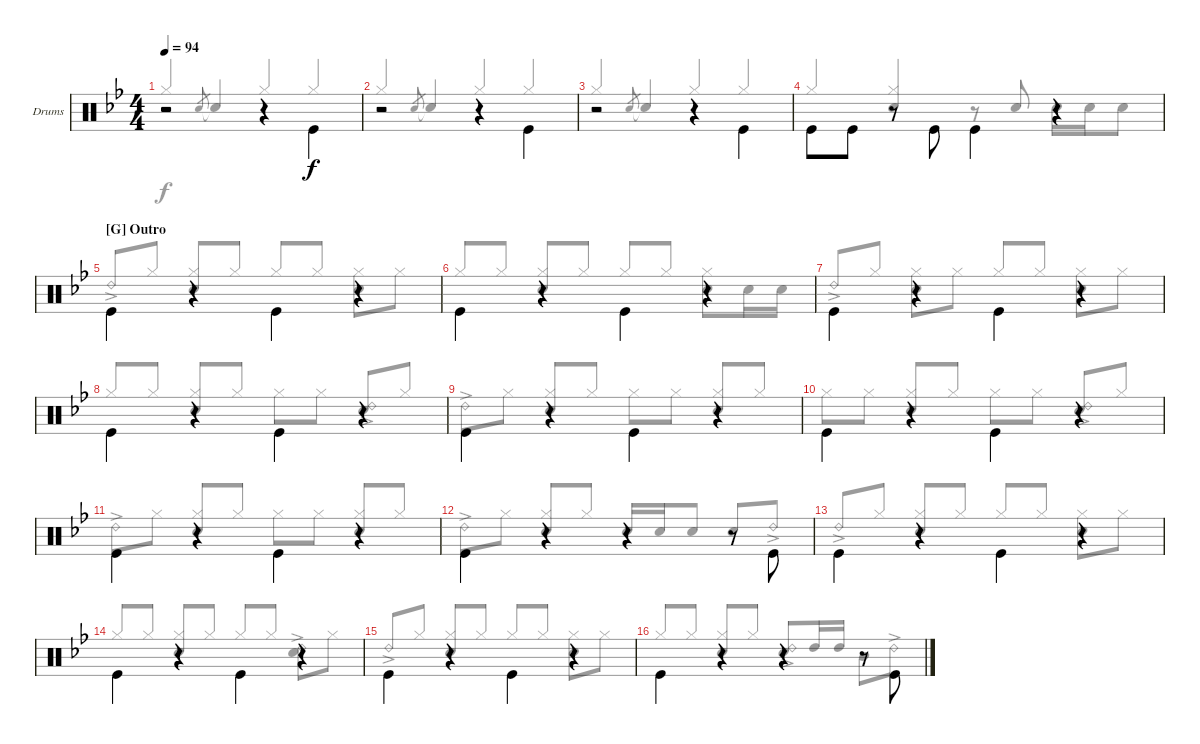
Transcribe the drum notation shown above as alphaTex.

\bracketExtendMode groupsimilarinstruments
\firstSystemTrackNameOrientation horizontal
\otherSystemsTrackNameOrientation horizontal
\track ("Drum" "Drums") {instrument percussion}
\staff {score}
\articulation defaults
\voice
\ts (4 4)
\tempo 94
\clef neutral
\scale
1.04918
\ks bb
r.2{dy f} r.4 "Kick (hit)".4{beam invert} |
\scale
0.95082 r.2 r.4 "Kick (hit)".4{beam invert} |
\scale
1.04918 r.2 r.4 "Kick (hit)".4{beam invert} |
\scale
0.95082 "Kick (hit)".8{beam invert} "Kick (hit)".8 r.8{beam invert} "Kick (hit)".8{beam invert} "Kick (hit)".4{beam invert} r.4{beam invert} |
\section ("G" "Outro")
\scale
1.04918 "Kick (hit)".4{beam invert} r.4{beam invert} "Kick (hit)".4{beam invert} r.4 |
\scale
0.95082 "Kick (hit)".4{beam invert} r.4{beam invert} "Kick (hit)".4{beam invert} r.4 |
\scale
1.04918 "Kick (hit)".4{beam invert} r.4{beam invert} "Kick (hit)".4{beam invert} r.4 |
\scale
0.95082 "Kick (hit)".4{beam invert} r.4{beam invert} "Kick (hit)".4{beam invert} r.4 |
\scale
1.04918 "Kick (hit)".4{beam invert} r.4{beam invert} "Kick (hit)".4{beam invert} r.4 |
\scale
0.95082 "Kick (hit)".4{beam invert} r.4{beam invert} "Kick (hit)".4{beam invert} r.4 |
\scale
1.04918 "Kick (hit)".4{beam invert} r.4{beam invert} "Kick (hit)".4{beam invert} r.4 |
\scale
0.95082 "Kick (hit)".4{beam invert} r.4{beam invert} r.4 r.8 "Kick (hit)".8{beam invert} |
\scale
1.04918 "Kick (hit)".4{beam invert} r.4{beam invert} "Kick (hit)".4{beam invert} r.4 |
\scale
0.95082 "Kick (hit)".4{beam invert} r.4{beam invert} "Kick (hit)".4{beam invert} r.4 |
\scale
1.04918 "Kick (hit)".4{beam invert} r.4{beam invert} "Kick (hit)".4{beam invert} r.4 |
\scale
0.95082 "Kick (hit)".4{beam invert} r.4{beam invert} r.4 r.8 "Kick (hit)".8{beam invert}
\voice
\clef neutral
\ottava regular
\simile none
\scale
1.04918
\ks bb "Hi-Hat (closed)".4{dy f beam invert} "Snare (hit) 2".8{gr beam invert} "Snare (hit) 2"{t}.4{beam invert} "Hi-Hat (closed)".4{beam invert} "Hi-Hat (closed)".4{beam invert}
|
\scale
0.95082 "Hi-Hat (closed)".4{beam invert} "Snare (hit) 2".8{gr beam invert} "Snare (hit) 2"{t}.4{beam invert} "Hi-Hat (closed)".4{beam invert} "Hi-Hat (closed)".4{beam invert} |
\scale
1.04918 "Hi-Hat (closed)".4{beam invert} "Snare (hit) 2".8{gr beam invert} "Snare (hit) 2"{t}.4{beam invert} "Hi-Hat (closed)".4{beam invert} "Hi-Hat (closed)".4{beam invert} |
\scale
0.95082 "Hi-Hat (closed)".4{beam invert} ("Hi-Hat (closed)" "Snare (hit) 2").4{beam invert} r.8 "Snare (hit) 2".8{beam invert} "Snare (hit) 2".16 "Snare (hit) 2".16 "Snare (hit) 2".8 |
\scale
1.04918 "Ride (bell) 2"{ac}.8{beam invert} "Hi-Hat (closed)".8 ("Hi-Hat (closed)" "Snare (hit) 2").8 "Hi-Hat (closed)".8 "Hi-Hat (closed)".8{beam invert} "Hi-Hat (closed)".8 ("Hi-Hat (closed)" "Snare (hit) 2").8 "Hi-Hat (closed)".8 |
\scale
0.95082 "Hi-Hat (closed)".8{beam invert} "Hi-Hat (closed)".8 ("Hi-Hat (closed)" "Snare (hit) 2").8 "Hi-Hat (closed)".8 "Hi-Hat (closed)".8{beam invert} "Hi-Hat (closed)".8 ("Hi-Hat (closed)" "Snare (hit) 2").8 "Snare (hit) 2".16 "Snare (hit) 2".16 |
\scale
1.04918 "Ride (bell) 2"{ac}.8{beam invert} "Hi-Hat (closed)".8 ("Hi-Hat (closed)" "Snare (hit) 2").8 "Hi-Hat (closed)".8 "Hi-Hat (closed)".8 "Hi-Hat (closed)".8{beam invert} ("Hi-Hat (closed)" "Snare (hit) 2").8 "Hi-Hat (closed)".8 |
\scale
0.95082 "Hi-Hat (closed)".8 "Hi-Hat (closed)".8 ("Hi-Hat (closed)" "Snare (hit) 2").8{beam invert} "Hi-Hat (closed)".8 "Hi-Hat (closed)".8 "Hi-Hat (closed)".8 ("Snare (hit) 2" "Ride (bell) 2"{ac}).8 "Hi-Hat (closed)".8{beam invert} |
\scale
1.04918 "Ride (bell) 2"{ac}.8 "Hi-Hat (closed)".8 ("Hi-Hat (closed)" "Snare (hit) 2").8 "Hi-Hat (closed)".8{beam invert} "Hi-Hat (closed)".8 "Hi-Hat (closed)".8 ("Hi-Hat (closed)" "Snare (hit) 2").8 "Hi-Hat (closed)".8{beam invert} |
\scale
0.95082 "Hi-Hat (closed)".8 "Hi-Hat (closed)".8 ("Hi-Hat (closed)" "Snare (hit) 2").8 "Hi-Hat (closed)".8{beam invert} "Hi-Hat (closed)".8 "Hi-Hat (closed)".8 ("Snare (hit) 2" "Ride (bell) 2"{ac}).8 "Hi-Hat (closed)".8{beam invert} |
\scale
1.04918 "Ride (bell) 2"{ac}.8 "Hi-Hat (closed)".8 ("Hi-Hat (closed)" "Snare (hit) 2").8 "Hi-Hat (closed)".8{beam invert} "Hi-Hat (closed)".8 "Hi-Hat (closed)".8 ("Hi-Hat (closed)" "Snare (hit) 2").8 "Hi-Hat (closed)".8{beam invert} |
\scale
0.95082 "Ride (bell) 2"{ac}.8 "Hi-Hat (closed)".8 ("Hi-Hat (closed)" "Snare (hit) 2").8 "Hi-Hat (closed)".8{beam invert} "Snare (hit) 2".16 "Snare (hit) 2".16 "Snare (hit) 2".8 "Snare (hit) 2".8{beam invert} "Ride (bell) 2"{ac}.8 |
\scale
1.04918 "Ride (bell) 2"{ac}.8{beam invert} "Hi-Hat (closed)".8 ("Hi-Hat (closed)" "Snare (hit) 2").8 "Hi-Hat (closed)".8 "Hi-Hat (closed)".8{beam invert} "Hi-Hat (closed)".8 ("Hi-Hat (closed)" "Snare (hit) 2").8 "Hi-Hat (closed)".8 |
\scale
0.95082 "Hi-Hat (closed)".8{beam invert} "Hi-Hat (closed)".8 ("Hi-Hat (closed)" "Snare (hit) 2").8 "Hi-Hat (closed)".8 "Hi-Hat (closed)".8{beam invert} "Hi-Hat (closed)".8 ("Snare (hit) 2" "Ride (bell) 2"{ac}).8 "Hi-Hat (closed)".8 |
\scale
1.04918 "Ride (bell) 2"{ac}.8{beam invert} "Hi-Hat (closed)".8 ("Hi-Hat (closed)" "Snare (hit) 2").8 "Hi-Hat (closed)".8 "Hi-Hat (closed)".8{beam invert} "Hi-Hat (closed)".8 ("Hi-Hat (closed)" "Snare (hit) 2").8 "Hi-Hat (closed)".8 |
\scale
0.95082 "Hi-Hat (closed)".8{beam invert} "Hi-Hat (closed)".8 ("Hi-Hat (closed)" "Snare (hit) 2").8 "Hi-Hat (closed)".8 ("Snare (hit) 2" "Ride (bell) 2"{ac}).8{beam invert} "High Tom (hit)".16 "High Tom (hit)".16 "Mid Tom (hit)".8 "Ride (bell) 2"{ac}.8
